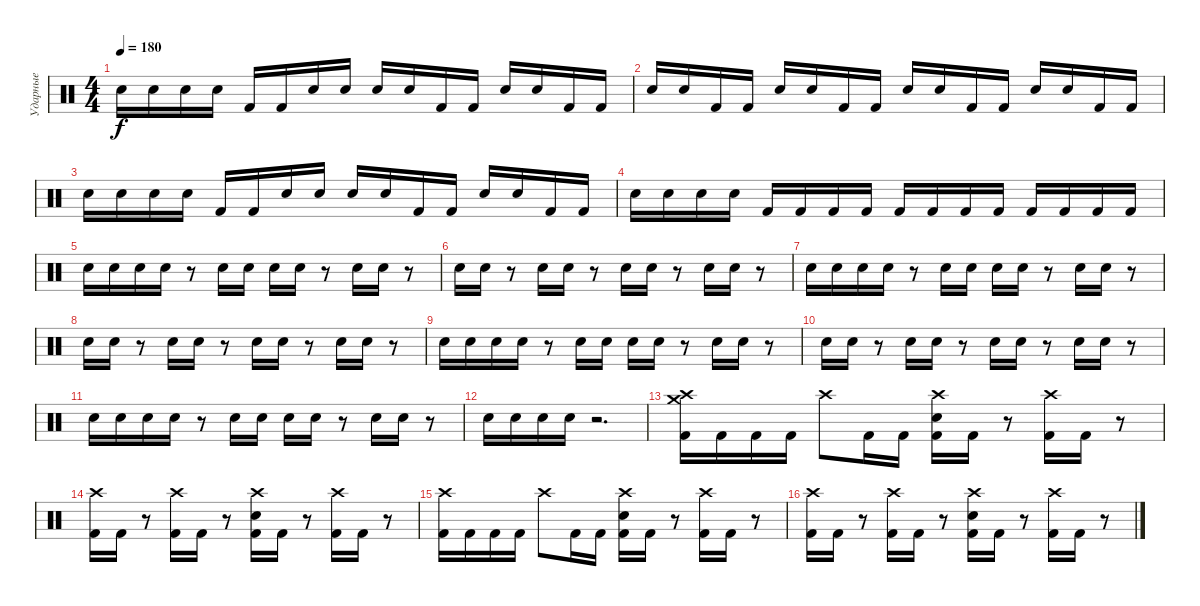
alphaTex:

\track ("Ударные" "Ударные") {instrument percussion}
\staff {score}
\articulation defaults
\ts (4 4)
\tempo 180
\clef neutral
\ks c "Electric Snare (hit)".16{dy f} "Electric Snare (hit)".16 "Electric Snare (hit)".16 "Electric Snare (hit)".16 "Kick (hit) 2".16 "Kick (hit) 2".16 "Electric Snare (hit)".16 "Electric Snare (hit)".16 "Electric Snare (hit)".16 "Electric Snare (hit)".16 "Kick (hit) 2".16 "Kick (hit) 2".16 "Electric Snare (hit)".16 "Electric Snare (hit)".16 "Kick (hit) 2".16 "Kick (hit) 2".16
|
"Electric Snare (hit)".16 "Electric Snare (hit)".16 "Kick (hit) 2".16 "Kick (hit) 2".16 "Electric Snare (hit)".16 "Electric Snare (hit)".16 "Kick (hit) 2".16 "Kick (hit) 2".16 "Electric Snare (hit)".16 "Electric Snare (hit)".16 "Kick (hit) 2".16 "Kick (hit) 2".16 "Electric Snare (hit)".16 "Electric Snare (hit)".16 "Kick (hit) 2".16 "Kick (hit) 2".16 |
"Electric Snare (hit)".16 "Electric Snare (hit)".16 "Electric Snare (hit)".16 "Electric Snare (hit)".16 "Kick (hit) 2".16 "Kick (hit) 2".16 "Electric Snare (hit)".16 "Electric Snare (hit)".16 "Electric Snare (hit)".16 "Electric Snare (hit)".16 "Kick (hit) 2".16 "Kick (hit) 2".16 "Electric Snare (hit)".16 "Electric Snare (hit)".16 "Kick (hit) 2".16 "Kick (hit) 2".16 |
"Electric Snare (hit)".16 "Electric Snare (hit)".16 "Electric Snare (hit)".16 "Electric Snare (hit)".16 "Kick (hit) 2".16 "Kick (hit) 2".16 "Kick (hit) 2".16 "Kick (hit) 2".16 "Kick (hit) 2".16 "Kick (hit) 2".16 "Kick (hit) 2".16 "Kick (hit) 2".16 "Kick (hit) 2".16 "Kick (hit) 2".16 "Kick (hit) 2".16 "Kick (hit) 2".16 |
"Electric Snare (hit)".16 "Electric Snare (hit)".16 "Electric Snare (hit)".16 "Electric Snare (hit)".16 r.8 "Electric Snare (hit)".16 "Electric Snare (hit)".16 "Electric Snare (hit)".16 "Electric Snare (hit)".16 r.8 "Electric Snare (hit)".16 "Electric Snare (hit)".16 r.8 |
"Electric Snare (hit)".16 "Electric Snare (hit)".16 r.8 "Electric Snare (hit)".16 "Electric Snare (hit)".16 r.8 "Electric Snare (hit)".16 "Electric Snare (hit)".16 r.8 "Electric Snare (hit)".16 "Electric Snare (hit)".16 r.8 |
"Electric Snare (hit)".16 "Electric Snare (hit)".16 "Electric Snare (hit)".16 "Electric Snare (hit)".16 r.8 "Electric Snare (hit)".16 "Electric Snare (hit)".16 "Electric Snare (hit)".16 "Electric Snare (hit)".16 r.8 "Electric Snare (hit)".16 "Electric Snare (hit)".16 r.8 |
"Electric Snare (hit)".16 "Electric Snare (hit)".16 r.8 "Electric Snare (hit)".16 "Electric Snare (hit)".16 r.8 "Electric Snare (hit)".16 "Electric Snare (hit)".16 r.8 "Electric Snare (hit)".16 "Electric Snare (hit)".16 r.8 |
"Electric Snare (hit)".16 "Electric Snare (hit)".16 "Electric Snare (hit)".16 "Electric Snare (hit)".16 r.8 "Electric Snare (hit)".16 "Electric Snare (hit)".16 "Electric Snare (hit)".16 "Electric Snare (hit)".16 r.8 "Electric Snare (hit)".16 "Electric Snare (hit)".16 r.8 |
"Electric Snare (hit)".16 "Electric Snare (hit)".16 r.8 "Electric Snare (hit)".16 "Electric Snare (hit)".16 r.8 "Electric Snare (hit)".16 "Electric Snare (hit)".16 r.8 "Electric Snare (hit)".16 "Electric Snare (hit)".16 r.8 |
"Electric Snare (hit)".16 "Electric Snare (hit)".16 "Electric Snare (hit)".16 "Electric Snare (hit)".16 r.8 "Electric Snare (hit)".16 "Electric Snare (hit)".16 "Electric Snare (hit)".16 "Electric Snare (hit)".16 r.8 "Electric Snare (hit)".16 "Electric Snare (hit)".16 r.8 |
"Electric Snare (hit)".16 "Electric Snare (hit)".16 "Electric Snare (hit)".16 "Electric Snare (hit)".16 r.2{d} |
("Crash high (hit)" "Crash medium (hit)" "Kick (hit) 2").16 "Kick (hit) 2".16 "Kick (hit) 2".16 "Kick (hit) 2".16 "Crash high (hit)".8 "Kick (hit) 2".16 "Kick (hit) 2".16 ("Crash high (hit)" "Electric Snare (hit)" "Kick (hit) 2").16 "Kick (hit) 2".16 r.8 ("Crash high (hit)" "Kick (hit) 2").16 "Kick (hit) 2".16 r.8 |
("Crash high (hit)" "Kick (hit) 2").16 "Kick (hit) 2".16 r.8 ("Crash high (hit)" "Kick (hit) 2").16 "Kick (hit) 2".16 r.8 ("Crash high (hit)" "Electric Snare (hit)" "Kick (hit) 2").16 "Kick (hit) 2".16 r.8 ("Crash high (hit)" "Kick (hit) 2").16 "Kick (hit) 2".16 r.8 |
("Crash high (hit)" "Kick (hit) 2").16 "Kick (hit) 2".16 "Kick (hit) 2".16 "Kick (hit) 2".16 "Crash high (hit)".8 "Kick (hit) 2".16 "Kick (hit) 2".16 ("Crash high (hit)" "Electric Snare (hit)" "Kick (hit) 2").16 "Kick (hit) 2".16 r.8 ("Crash high (hit)" "Kick (hit) 2").16 "Kick (hit) 2".16 r.8 |
("Crash high (hit)" "Kick (hit) 2").16 "Kick (hit) 2".16 r.8 ("Crash high (hit)" "Kick (hit) 2").16 "Kick (hit) 2".16 r.8 ("Crash high (hit)" "Electric Snare (hit)" "Kick (hit) 2").16 "Kick (hit) 2".16 r.8 ("Crash high (hit)" "Kick (hit) 2").16 "Kick (hit) 2".16 r.8
